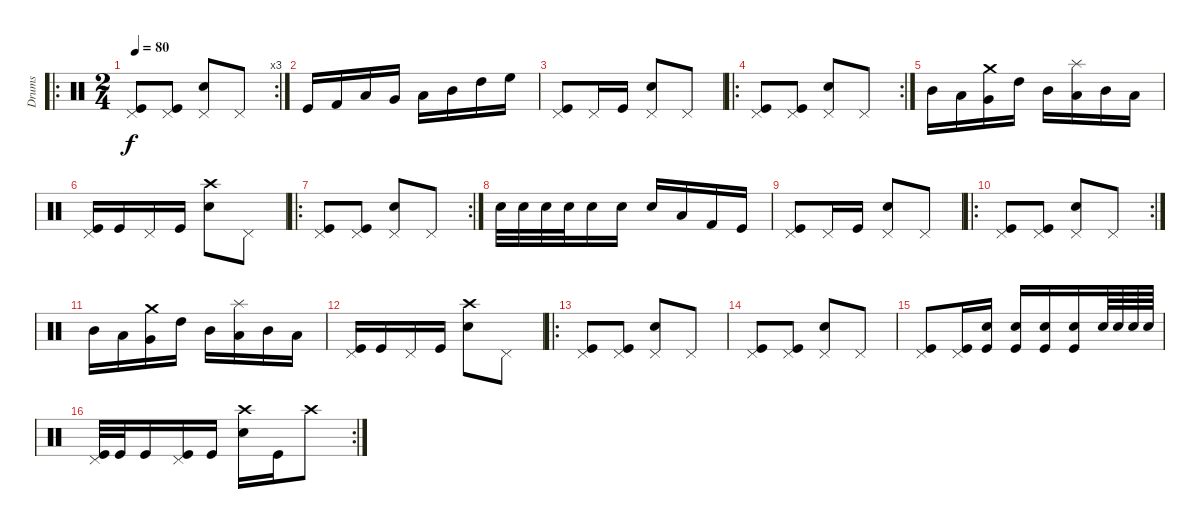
\track ("Drums" "Drums") {instrument percussion}
\staff {score}
\articulation defaults
\ro
\rc 3
\ts (2 4)
\tempo 80
\clef neutral
\ks c
("Pedal Hi-Hat (hit)" "Kick (hit)").8{dy f} ("Pedal Hi-Hat (hit)" "Kick (hit)").8 ("Pedal Hi-Hat (hit)" "Snare (hit) 2").8 "Pedal Hi-Hat (hit)".8 |
"Kick (hit)".16 "Kick (hit) 2".16 "Low Floor Tom (hit)".16 "Very Low Tom (hit)".16 "Low Tom (hit)".16 "Mid Tom (hit)".16 "High Tom (hit)".16 "High Floor Tom (hit)".16 |
("Pedal Hi-Hat (hit)" "Kick (hit)").8 "Pedal Hi-Hat (hit)".16 "Kick (hit)".16 ("Pedal Hi-Hat (hit)" "Snare (hit) 2").8 "Pedal Hi-Hat (hit)".8 |
\ro
\rc 2
("Pedal Hi-Hat (hit)" "Kick (hit)").8 ("Pedal Hi-Hat (hit)" "Kick (hit)").8 ("Pedal Hi-Hat (hit)" "Snare (hit) 2").8 "Pedal Hi-Hat (hit)".8 |
"Mid Tom (hit)".16 "Low Tom (hit)".16 ("Crash medium (hit)" "Very Low Tom (hit)").16 "High Tom (hit)".16 "Mid Tom (hit)".16 ("Splash (hit)" "Low Tom (hit)").16 "Mid Tom (hit)".16 "Low Tom (hit)".16 |
("Pedal Hi-Hat (hit)" "Kick (hit)").16 "Kick (hit)".16 "Pedal Hi-Hat (hit)".16 "Kick (hit)".16 ("Crash high (hit)" "Snare (hit) 2").8 "Pedal Hi-Hat (hit)".8 |
\ro
\rc 2
("Pedal Hi-Hat (hit)" "Kick (hit)").8 ("Pedal Hi-Hat (hit)" "Kick (hit)").8 ("Pedal Hi-Hat (hit)" "Snare (hit) 2").8 "Pedal Hi-Hat (hit)".8 |
"Snare (hit) 2".32 "Snare (hit) 2".32 "Snare (hit) 2".32 "Snare (hit) 2".32 "Snare (hit) 2".16 "Snare (hit) 2".16 "Snare (hit) 2".16 "Low Floor Tom (hit)".16 "Kick (hit) 2".16 "Kick (hit)".16 |
("Pedal Hi-Hat (hit)" "Kick (hit)").8 "Pedal Hi-Hat (hit)".16 "Kick (hit)".16 ("Pedal Hi-Hat (hit)" "Snare (hit) 2").8 "Pedal Hi-Hat (hit)".8 |
\ro
\rc 2
("Pedal Hi-Hat (hit)" "Kick (hit)").8 ("Pedal Hi-Hat (hit)" "Kick (hit)").8 ("Pedal Hi-Hat (hit)" "Snare (hit) 2").8 "Pedal Hi-Hat (hit)".8 |
"Mid Tom (hit)".16 "Low Tom (hit)".16 ("Crash medium (hit)" "Very Low Tom (hit)").16 "High Tom (hit)".16 "Mid Tom (hit)".16 ("Splash (hit)" "Low Tom (hit)").16 "Mid Tom (hit)".16 "Low Tom (hit)".16 |
("Pedal Hi-Hat (hit)" "Kick (hit)").16 "Kick (hit)".16 "Pedal Hi-Hat (hit)".16 "Kick (hit)".16 ("Crash high (hit)" "Snare (hit) 2").8 "Pedal Hi-Hat (hit)".8 |
\ro
("Pedal Hi-Hat (hit)" "Kick (hit)").8 ("Pedal Hi-Hat (hit)" "Kick (hit)").8 ("Pedal Hi-Hat (hit)" "Snare (hit) 2").8 "Pedal Hi-Hat (hit)".8 |
("Pedal Hi-Hat (hit)" "Kick (hit)").8 ("Pedal Hi-Hat (hit)" "Kick (hit)").8 ("Pedal Hi-Hat (hit)" "Snare (hit) 2").8 "Pedal Hi-Hat (hit)".8 |
("Pedal Hi-Hat (hit)" "Kick (hit)").8 ("Pedal Hi-Hat (hit)" "Kick (hit)").16 ("Snare (hit) 2" "Kick (hit)").16 ("Snare (hit) 2" "Kick (hit)").16 ("Snare (hit) 2" "Kick (hit)").16 ("Snare (hit) 2" "Kick (hit)").16 "Snare (hit) 2".64 "Snare (hit) 2".64 "Snare (hit) 2".64 "Snare (hit) 2".64 |
\rc 2
("Pedal Hi-Hat (hit)" "Kick (hit)").32 "Kick (hit)".32 "Kick (hit)".16 ("Pedal Hi-Hat (hit)" "Kick (hit)").16 "Kick (hit)".16 ("Crash high (hit)" "Snare (hit) 2").16 "Kick (hit)".16 "Crash high (hit)".8
